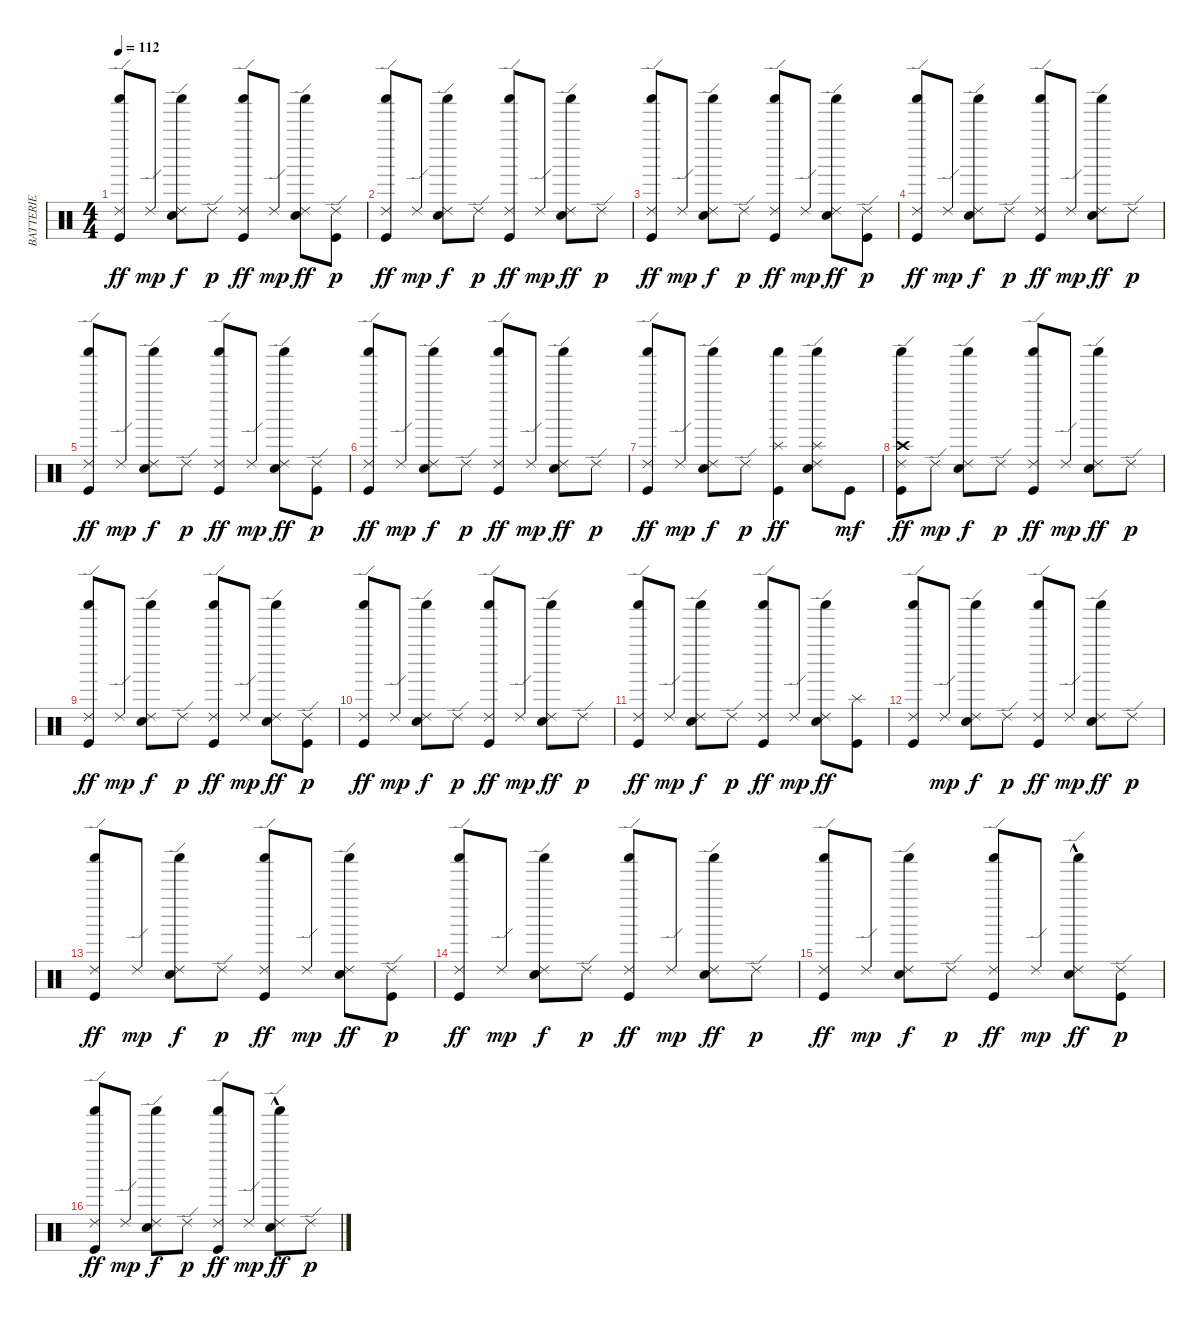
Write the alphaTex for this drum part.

\track ("BATTERIE" "BATTERIE") {instrument percussion}
\staff {score}
\articulation defaults
\ts (4 4)
\tempo 112
\clef neutral
\ks c
("Kick (hit)" "Shaker (hit)" "Ride (edge) 2").8{dy ff} "Ride (edge) 2".8{dy mp} ("Snare (hit) 2" "Ride (edge) 2" "Shaker (hit)").8{dy f} "Ride (edge) 2".8{dy p} ("Kick (hit)" "Shaker (hit)" "Ride (edge) 2").8{dy ff} "Ride (edge) 2".8{dy mp} ("Snare (hit) 2" "Ride (edge) 2" "Shaker (hit)").8{dy ff} ("Kick (hit)" "Ride (edge) 2").8{dy p} |
("Kick (hit)" "Shaker (hit)" "Ride (edge) 2").8{dy ff} "Ride (edge) 2".8{dy mp} ("Snare (hit) 2" "Ride (edge) 2" "Shaker (hit)").8{dy f} "Ride (edge) 2".8{dy p} ("Kick (hit)" "Shaker (hit)" "Ride (edge) 2").8{dy ff} "Ride (edge) 2".8{dy mp} ("Snare (hit) 2" "Ride (edge) 2" "Shaker (hit)").8{dy ff} "Ride (edge) 2".8{dy p} |
("Kick (hit)" "Shaker (hit)" "Ride (edge) 2").8{dy ff} "Ride (edge) 2".8{dy mp} ("Snare (hit) 2" "Ride (edge) 2" "Shaker (hit)").8{dy f} "Ride (edge) 2".8{dy p} ("Kick (hit)" "Shaker (hit)" "Ride (edge) 2").8{dy ff} "Ride (edge) 2".8{dy mp} ("Snare (hit) 2" "Ride (edge) 2" "Shaker (hit)").8{dy ff} ("Kick (hit)" "Ride (edge) 2").8{dy p} |
("Kick (hit)" "Shaker (hit)" "Ride (edge) 2").8{dy ff} "Ride (edge) 2".8{dy mp} ("Snare (hit) 2" "Ride (edge) 2" "Shaker (hit)").8{dy f} "Ride (edge) 2".8{dy p} ("Kick (hit)" "Shaker (hit)" "Ride (edge) 2").8{dy ff} "Ride (edge) 2".8{dy mp} ("Snare (hit) 2" "Ride (edge) 2" "Shaker (hit)").8{dy ff} "Ride (edge) 2".8{dy p} |
("Kick (hit)" "Shaker (hit)" "Ride (edge) 2").8{dy ff} "Ride (edge) 2".8{dy mp} ("Snare (hit) 2" "Ride (edge) 2" "Shaker (hit)").8{dy f} "Ride (edge) 2".8{dy p} ("Kick (hit)" "Shaker (hit)" "Ride (edge) 2").8{dy ff} "Ride (edge) 2".8{dy mp} ("Snare (hit) 2" "Ride (edge) 2" "Shaker (hit)").8{dy ff} ("Kick (hit)" "Ride (edge) 2").8{dy p} |
("Kick (hit)" "Shaker (hit)" "Ride (edge) 2").8{dy ff} "Ride (edge) 2".8{dy mp} ("Snare (hit) 2" "Ride (edge) 2" "Shaker (hit)").8{dy f} "Ride (edge) 2".8{dy p} ("Kick (hit)" "Shaker (hit)" "Ride (edge) 2").8{dy ff} "Ride (edge) 2".8{dy mp} ("Snare (hit) 2" "Ride (edge) 2" "Shaker (hit)").8{dy ff} "Ride (edge) 2".8{dy p} |
("Kick (hit)" "Shaker (hit)" "Ride (edge) 2").8{dy ff} "Ride (edge) 2".8{dy mp} ("Snare (hit) 2" "Ride (edge) 2" "Shaker (hit)").8{dy f} "Ride (edge) 2".8{dy p} ("Splash (hit)" "Kick (hit)" "Shaker (hit)").4{dy ff} ("Snare (hit) 2" "Splash (hit)" "Ride (edge) 2" "Shaker (hit)").8 "Kick (hit)".8{dy mf} |
("Kick (hit)" "Crash high (hit)" "Shaker (hit)" "Ride (edge) 2").8{dy ff} "Ride (edge) 2".8{dy mp} ("Snare (hit) 2" "Ride (edge) 2" "Shaker (hit)").8{dy f} "Ride (edge) 2".8{dy p} ("Kick (hit)" "Shaker (hit)" "Ride (edge) 2").8{dy ff} "Ride (edge) 2".8{dy mp} ("Snare (hit) 2" "Ride (edge) 2" "Shaker (hit)").8{dy ff} "Ride (edge) 2".8{dy p} |
("Kick (hit)" "Shaker (hit)" "Ride (edge) 2").8{dy ff} "Ride (edge) 2".8{dy mp} ("Snare (hit) 2" "Ride (edge) 2" "Shaker (hit)").8{dy f} "Ride (edge) 2".8{dy p} ("Kick (hit)" "Shaker (hit)" "Ride (edge) 2").8{dy ff} "Ride (edge) 2".8{dy mp} ("Snare (hit) 2" "Ride (edge) 2" "Shaker (hit)").8{dy ff} ("Ride (edge) 2" "Kick (hit)").8{dy p} |
("Kick (hit)" "Shaker (hit)" "Ride (edge) 2").8{dy ff} "Ride (edge) 2".8{dy mp} ("Snare (hit) 2" "Ride (edge) 2" "Shaker (hit)").8{dy f} "Ride (edge) 2".8{dy p} ("Kick (hit)" "Shaker (hit)" "Ride (edge) 2").8{dy ff} "Ride (edge) 2".8{dy mp} ("Snare (hit) 2" "Ride (edge) 2" "Shaker (hit)").8{dy ff} "Ride (edge) 2".8{dy p} |
("Kick (hit)" "Shaker (hit)" "Ride (edge) 2").8{dy ff} "Ride (edge) 2".8{dy mp} ("Snare (hit) 2" "Ride (edge) 2" "Shaker (hit)").8{dy f} "Ride (edge) 2".8{dy p} ("Kick (hit)" "Shaker (hit)" "Ride (edge) 2").8{dy ff} "Ride (edge) 2".8{dy mp} ("Snare (hit) 2" "Ride (edge) 2" "Shaker (hit)").8{dy ff} ("Kick (hit)" "Splash (hit)").8 |
("Kick (hit)" "Shaker (hit)" "Ride (edge) 2").8 "Ride (edge) 2".8{dy mp} ("Snare (hit) 2" "Ride (edge) 2" "Shaker (hit)").8{dy f} "Ride (edge) 2".8{dy p} ("Kick (hit)" "Shaker (hit)" "Ride (edge) 2").8{dy ff} "Ride (edge) 2".8{dy mp} ("Snare (hit) 2" "Ride (edge) 2" "Shaker (hit)").8{dy ff} "Ride (edge) 2".8{dy p} |
("Kick (hit)" "Shaker (hit)" "Ride (edge) 2").8{dy ff} "Ride (edge) 2".8{dy mp} ("Snare (hit) 2" "Ride (edge) 2" "Shaker (hit)").8{dy f} "Ride (edge) 2".8{dy p} ("Kick (hit)" "Shaker (hit)" "Ride (edge) 2").8{dy ff} "Ride (edge) 2".8{dy mp} ("Snare (hit) 2" "Ride (edge) 2" "Shaker (hit)").8{dy ff} ("Kick (hit)" "Ride (edge) 2").8{dy p} |
("Kick (hit)" "Shaker (hit)" "Ride (edge) 2").8{dy ff} "Ride (edge) 2".8{dy mp} ("Snare (hit) 2" "Ride (edge) 2" "Shaker (hit)").8{dy f} "Ride (edge) 2".8{dy p} ("Kick (hit)" "Shaker (hit)" "Ride (edge) 2").8{dy ff} "Ride (edge) 2".8{dy mp} ("Snare (hit) 2" "Ride (edge) 2" "Shaker (hit)").8{dy ff} "Ride (edge) 2".8{dy p} |
("Kick (hit)" "Shaker (hit)" "Ride (edge) 2").8{dy ff} "Ride (edge) 2".8{dy mp} ("Snare (hit) 2" "Ride (edge) 2" "Shaker (hit)").8{dy f} "Ride (edge) 2".8{dy p} ("Kick (hit)" "Shaker (hit)" "Ride (edge) 2").8{dy ff} "Ride (edge) 2".8{dy mp} ("Snare (hit) 2"{hac} "Ride (edge) 2" "Shaker (hit)").8{dy ff} ("Kick (hit)" "Ride (edge) 2").8{dy p} |
("Kick (hit)" "Shaker (hit)" "Ride (edge) 2").8{dy ff} "Ride (edge) 2".8{dy mp} ("Snare (hit) 2" "Ride (edge) 2" "Shaker (hit)").8{dy f} "Ride (edge) 2".8{dy p} ("Kick (hit)" "Shaker (hit)" "Ride (edge) 2").8{dy ff} "Ride (edge) 2".8{dy mp} ("Snare (hit) 2"{hac} "Ride (edge) 2" "Shaker (hit)").8{dy ff} "Ride (edge) 2".8{dy p}
